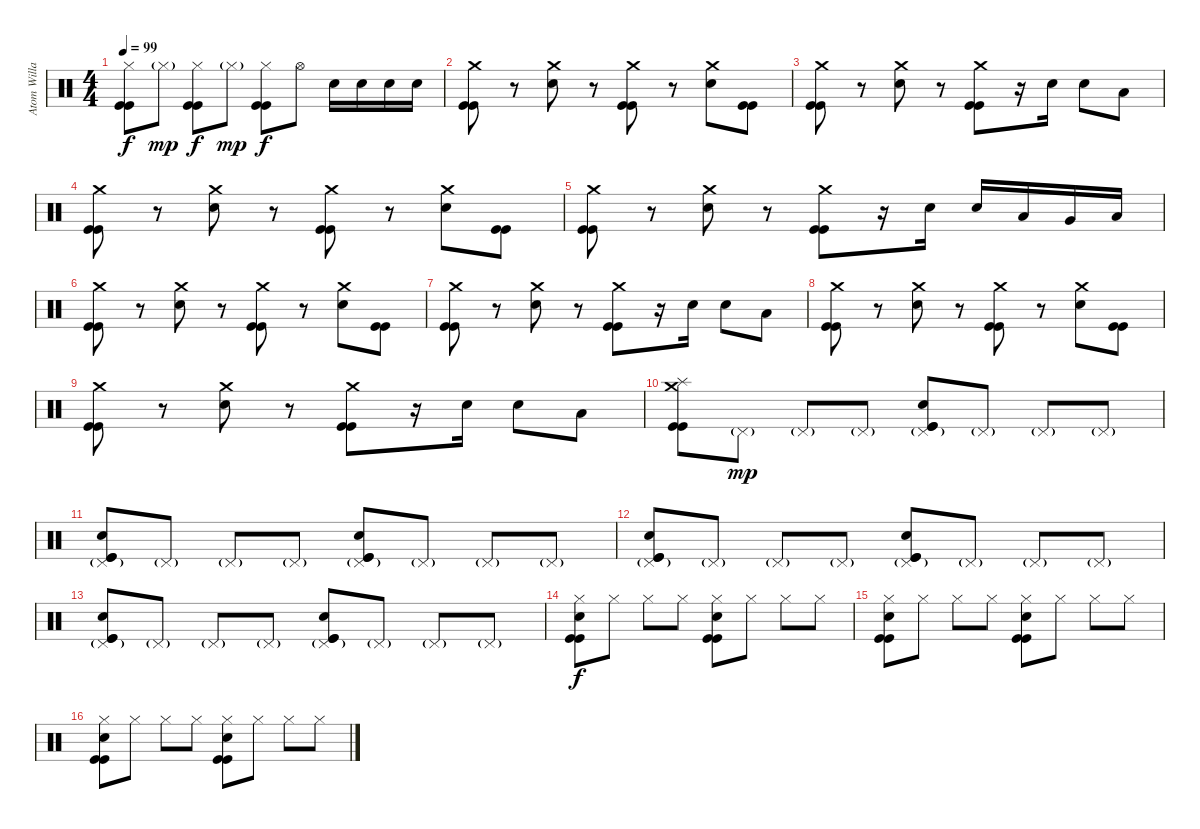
\track ("Atom Willard" "Atom Willa") {instrument percussion}
\staff {score}
\articulation defaults
\ts (4 4)
\tempo 99
\clef neutral
\ks c
("Hi-Hat (closed)" "Kick (hit)" "Kick (hit)").8{dy f} "Hi-Hat (closed)"{g}.8{dy mp} ("Hi-Hat (closed)" "Kick (hit)" "Kick (hit)").8{dy f} "Hi-Hat (closed)"{g}.8{dy mp} ("Hi-Hat (closed)" "Kick (hit)" "Kick (hit)").8{dy f} "Hi-Hat (open)".8 "Electric Snare (hit)".16 "Electric Snare (hit)".16 "Electric Snare (hit)".16 "Electric Snare (hit)".16 |
("Crash medium (hit)" "Kick (hit)" "Kick (hit)").8 r.8 ("Crash medium (hit)" "Electric Snare (hit)").8 r.8 ("Crash medium (hit)" "Kick (hit)" "Kick (hit)").8 r.8 ("Crash medium (hit)" "Electric Snare (hit)").8 ("Kick (hit)" "Kick (hit)").8 |
("Crash medium (hit)" "Kick (hit)" "Kick (hit)").8 r.8 ("Crash medium (hit)" "Electric Snare (hit)").8 r.8 ("Crash medium (hit)" "Kick (hit)" "Kick (hit)").8 r.16 "Electric Snare (hit)".16 "Electric Snare (hit)".8 "Low Tom (hit)".8 |
("Crash medium (hit)" "Kick (hit)" "Kick (hit)").8 r.8 ("Crash medium (hit)" "Electric Snare (hit)").8 r.8 ("Crash medium (hit)" "Kick (hit)" "Kick (hit)").8 r.8 ("Crash medium (hit)" "Electric Snare (hit)").8 ("Kick (hit)" "Kick (hit)").8 |
("Crash medium (hit)" "Kick (hit)" "Kick (hit)").8 r.8 ("Crash medium (hit)" "Electric Snare (hit)").8 r.8 ("Crash medium (hit)" "Kick (hit)" "Kick (hit)").8 r.16 "Electric Snare (hit)".16 "Electric Snare (hit)".16 "Low Tom (hit)".16 "Very Low Tom (hit)".16 "Low Floor Tom (hit)".16 |
("Crash medium (hit)" "Kick (hit)" "Kick (hit)").8 r.8 ("Crash medium (hit)" "Electric Snare (hit)").8 r.8 ("Crash medium (hit)" "Kick (hit)" "Kick (hit)").8 r.8 ("Crash medium (hit)" "Electric Snare (hit)").8 ("Kick (hit)" "Kick (hit)").8 |
("Crash medium (hit)" "Kick (hit)" "Kick (hit)").8 r.8 ("Crash medium (hit)" "Electric Snare (hit)").8 r.8 ("Crash medium (hit)" "Kick (hit)" "Kick (hit)").8 r.16 "Electric Snare (hit)".16 "Electric Snare (hit)".8 "Low Tom (hit)".8 |
("Crash medium (hit)" "Kick (hit)" "Kick (hit)").8 r.8 ("Crash medium (hit)" "Electric Snare (hit)").8 r.8 ("Crash medium (hit)" "Kick (hit)" "Kick (hit)").8 r.8 ("Crash medium (hit)" "Electric Snare (hit)").8 ("Kick (hit)" "Kick (hit)").8 |
("Crash medium (hit)" "Kick (hit)" "Kick (hit)").8 r.8 ("Crash medium (hit)" "Electric Snare (hit)").8 r.8 ("Crash medium (hit)" "Kick (hit)" "Kick (hit)").8 r.16 "Electric Snare (hit)".16 "Electric Snare (hit)".8 "Low Floor Tom (hit)".8 |
("Splash (hit)" "Crash medium (hit)" "Kick (hit)" "Kick (hit)").8 "Pedal Hi-Hat (hit)"{g}.8{dy mp} "Pedal Hi-Hat (hit)"{g}.8 "Pedal Hi-Hat (hit)"{g}.8 ("Pedal Hi-Hat (hit)"{g} "Hand Clap (hit)" "Kick (hit)" "Kick (hit)").8 "Pedal Hi-Hat (hit)"{g}.8 "Pedal Hi-Hat (hit)"{g}.8 "Pedal Hi-Hat (hit)"{g}.8 |
("Pedal Hi-Hat (hit)"{g} "Hand Clap (hit)" "Kick (hit)" "Kick (hit)").8 "Pedal Hi-Hat (hit)"{g}.8 "Pedal Hi-Hat (hit)"{g}.8 "Pedal Hi-Hat (hit)"{g}.8 ("Pedal Hi-Hat (hit)"{g} "Hand Clap (hit)" "Kick (hit)" "Kick (hit)").8 "Pedal Hi-Hat (hit)"{g}.8 "Pedal Hi-Hat (hit)"{g}.8 "Pedal Hi-Hat (hit)"{g}.8 |
("Pedal Hi-Hat (hit)"{g} "Hand Clap (hit)" "Kick (hit)" "Kick (hit)").8 "Pedal Hi-Hat (hit)"{g}.8 "Pedal Hi-Hat (hit)"{g}.8 "Pedal Hi-Hat (hit)"{g}.8 ("Pedal Hi-Hat (hit)"{g} "Hand Clap (hit)" "Kick (hit)" "Kick (hit)").8 "Pedal Hi-Hat (hit)"{g}.8 "Pedal Hi-Hat (hit)"{g}.8 "Pedal Hi-Hat (hit)"{g}.8 |
("Pedal Hi-Hat (hit)"{g} "Hand Clap (hit)" "Kick (hit)" "Kick (hit)").8 "Pedal Hi-Hat (hit)"{g}.8 "Pedal Hi-Hat (hit)"{g}.8 "Pedal Hi-Hat (hit)"{g}.8 ("Pedal Hi-Hat (hit)"{g} "Hand Clap (hit)" "Kick (hit)" "Kick (hit)").8 "Pedal Hi-Hat (hit)"{g}.8 "Pedal Hi-Hat (hit)"{g}.8 "Pedal Hi-Hat (hit)"{g}.8 |
("Hi-Hat (closed)" "Hand Clap (hit)" "Kick (hit)" "Kick (hit)").8{dy f} "Hi-Hat (closed)".8 "Hi-Hat (closed)".8 "Hi-Hat (closed)".8 ("Hi-Hat (closed)" "Hand Clap (hit)" "Kick (hit)" "Kick (hit)").8 "Hi-Hat (closed)".8 "Hi-Hat (closed)".8 "Hi-Hat (closed)".8 |
("Hi-Hat (closed)" "Hand Clap (hit)" "Kick (hit)" "Kick (hit)").8 "Hi-Hat (closed)".8 "Hi-Hat (closed)".8 "Hi-Hat (closed)".8 ("Hi-Hat (closed)" "Hand Clap (hit)" "Kick (hit)" "Kick (hit)").8 "Hi-Hat (closed)".8 "Hi-Hat (closed)".8 "Hi-Hat (closed)".8 |
("Hi-Hat (closed)" "Hand Clap (hit)" "Kick (hit)" "Kick (hit)").8 "Hi-Hat (closed)".8 "Hi-Hat (closed)".8 "Hi-Hat (closed)".8 ("Hi-Hat (closed)" "Hand Clap (hit)" "Kick (hit)" "Kick (hit)").8 "Hi-Hat (closed)".8 "Hi-Hat (closed)".8 "Hi-Hat (closed)".8
